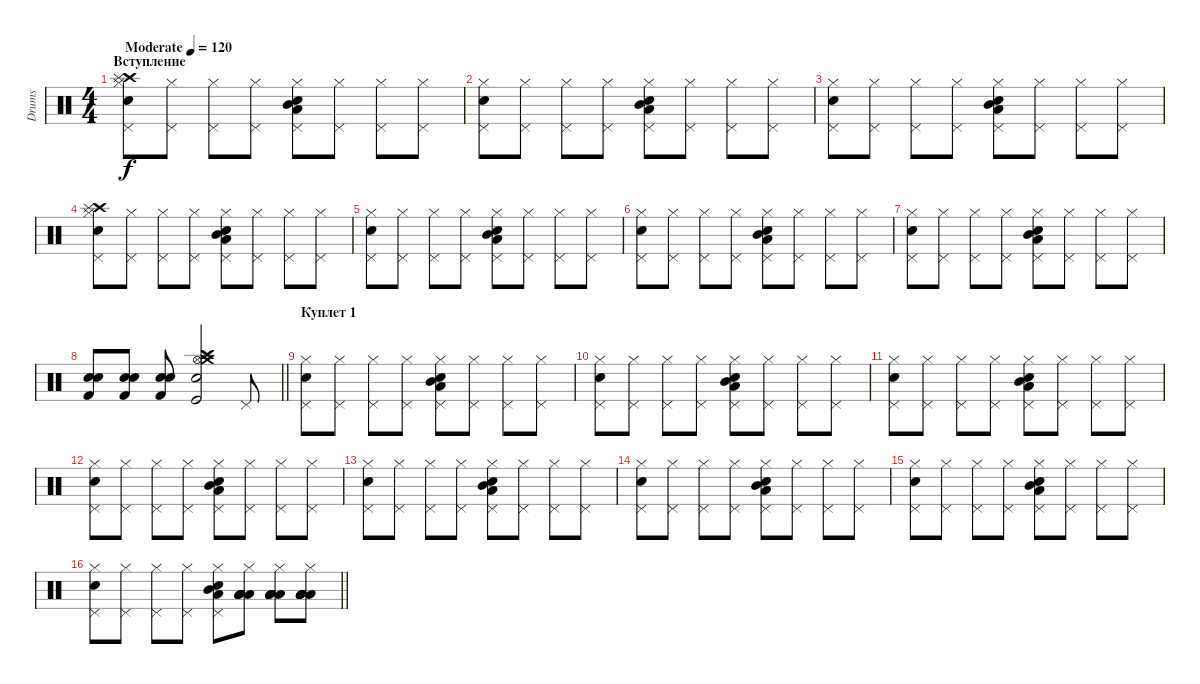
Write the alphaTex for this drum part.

\track ("Drums" "Drums") {instrument percussion}
\staff {score}
\articulation defaults
\ts (4 4)
\section ("" "Вступление")
\tempo (120 "Moderate")
\clef neutral
\ks c
("Hi-Hat (closed)" "Pedal Hi-Hat (hit)" "Snare (hit) 2" "Crash high (hit)" "Splash (hit)").8{dy f} ("Hi-Hat (closed)" "Pedal Hi-Hat (hit)").8 ("Hi-Hat (closed)" "Pedal Hi-Hat (hit)").8 ("Hi-Hat (closed)" "Pedal Hi-Hat (hit)").8 ("Hi-Hat (closed)" "Pedal Hi-Hat (hit)" "Mid Tom (hit)" "Low Floor Tom (hit)" "Electric Snare (hit)").8 ("Hi-Hat (closed)" "Pedal Hi-Hat (hit)").8 ("Hi-Hat (closed)" "Pedal Hi-Hat (hit)").8 ("Hi-Hat (closed)" "Pedal Hi-Hat (hit)").8 |
("Hi-Hat (closed)" "Pedal Hi-Hat (hit)" "Snare (hit) 2").8 ("Hi-Hat (closed)" "Pedal Hi-Hat (hit)").8 ("Hi-Hat (closed)" "Pedal Hi-Hat (hit)").8 ("Hi-Hat (closed)" "Pedal Hi-Hat (hit)").8 ("Hi-Hat (closed)" "Pedal Hi-Hat (hit)" "Mid Tom (hit)" "Low Floor Tom (hit)" "Electric Snare (hit)").8 ("Hi-Hat (closed)" "Pedal Hi-Hat (hit)").8 ("Hi-Hat (closed)" "Pedal Hi-Hat (hit)").8 ("Hi-Hat (closed)" "Pedal Hi-Hat (hit)").8 |
("Hi-Hat (closed)" "Pedal Hi-Hat (hit)" "Snare (hit) 2").8 ("Hi-Hat (closed)" "Pedal Hi-Hat (hit)").8 ("Hi-Hat (closed)" "Pedal Hi-Hat (hit)").8 ("Hi-Hat (closed)" "Pedal Hi-Hat (hit)").8 ("Hi-Hat (closed)" "Pedal Hi-Hat (hit)" "Mid Tom (hit)" "Low Floor Tom (hit)" "Electric Snare (hit)").8 ("Hi-Hat (closed)" "Pedal Hi-Hat (hit)").8 ("Hi-Hat (closed)" "Pedal Hi-Hat (hit)").8 ("Hi-Hat (closed)" "Pedal Hi-Hat (hit)").8 |
("Hi-Hat (closed)" "Pedal Hi-Hat (hit)" "Snare (hit) 2" "Crash high (hit)" "Splash (hit)").8 ("Hi-Hat (closed)" "Pedal Hi-Hat (hit)").8 ("Hi-Hat (closed)" "Pedal Hi-Hat (hit)").8 ("Hi-Hat (closed)" "Pedal Hi-Hat (hit)").8 ("Hi-Hat (closed)" "Pedal Hi-Hat (hit)" "Mid Tom (hit)" "Low Floor Tom (hit)" "Electric Snare (hit)").8 ("Hi-Hat (closed)" "Pedal Hi-Hat (hit)").8 ("Hi-Hat (closed)" "Pedal Hi-Hat (hit)").8 ("Hi-Hat (closed)" "Pedal Hi-Hat (hit)").8 |
("Hi-Hat (closed)" "Pedal Hi-Hat (hit)" "Snare (hit) 2").8 ("Hi-Hat (closed)" "Pedal Hi-Hat (hit)").8 ("Hi-Hat (closed)" "Pedal Hi-Hat (hit)").8 ("Hi-Hat (closed)" "Pedal Hi-Hat (hit)").8 ("Hi-Hat (closed)" "Pedal Hi-Hat (hit)" "Mid Tom (hit)" "Low Floor Tom (hit)" "Electric Snare (hit)").8 ("Hi-Hat (closed)" "Pedal Hi-Hat (hit)").8 ("Hi-Hat (closed)" "Pedal Hi-Hat (hit)").8 ("Hi-Hat (closed)" "Pedal Hi-Hat (hit)").8 |
("Hi-Hat (closed)" "Pedal Hi-Hat (hit)" "Snare (hit) 2").8 ("Hi-Hat (closed)" "Pedal Hi-Hat (hit)").8 ("Hi-Hat (closed)" "Pedal Hi-Hat (hit)").8 ("Hi-Hat (closed)" "Pedal Hi-Hat (hit)").8 ("Hi-Hat (closed)" "Pedal Hi-Hat (hit)" "Mid Tom (hit)" "Low Floor Tom (hit)" "Electric Snare (hit)").8 ("Hi-Hat (closed)" "Pedal Hi-Hat (hit)").8 ("Hi-Hat (closed)" "Pedal Hi-Hat (hit)").8 ("Hi-Hat (closed)" "Pedal Hi-Hat (hit)").8 |
("Hi-Hat (closed)" "Pedal Hi-Hat (hit)" "Snare (hit) 2").8 ("Hi-Hat (closed)" "Pedal Hi-Hat (hit)").8 ("Hi-Hat (closed)" "Pedal Hi-Hat (hit)").8 ("Hi-Hat (closed)" "Pedal Hi-Hat (hit)").8 ("Hi-Hat (closed)" "Pedal Hi-Hat (hit)" "Mid Tom (hit)" "Low Floor Tom (hit)" "Electric Snare (hit)").8 ("Hi-Hat (closed)" "Pedal Hi-Hat (hit)").8 ("Hi-Hat (closed)" "Pedal Hi-Hat (hit)").8 ("Hi-Hat (closed)" "Pedal Hi-Hat (hit)").8 |
\barLineRight lightlight
("Kick (hit) 2" "Snare (hit) 2" "Electric Snare (hit)").8 ("Kick (hit) 2" "Snare (hit) 2" "Electric Snare (hit)").8 ("Kick (hit) 2" "Snare (hit) 2" "Electric Snare (hit)").8 ("Crash high (hit)" "Hi-Hat (open)" "Splash (hit)" "Crash medium (hit)" "Snare (hit) 2" "Kick (hit)").2 "Pedal Hi-Hat (hit)".8 |
\section ("" "Куплет 1")
("Hi-Hat (closed)" "Pedal Hi-Hat (hit)" "Snare (hit) 2").8 ("Hi-Hat (closed)" "Pedal Hi-Hat (hit)").8 ("Hi-Hat (closed)" "Pedal Hi-Hat (hit)").8 ("Hi-Hat (closed)" "Pedal Hi-Hat (hit)").8 ("Hi-Hat (closed)" "Pedal Hi-Hat (hit)" "Mid Tom (hit)" "Low Floor Tom (hit)" "Electric Snare (hit)").8 ("Hi-Hat (closed)" "Pedal Hi-Hat (hit)").8 ("Hi-Hat (closed)" "Pedal Hi-Hat (hit)").8 ("Hi-Hat (closed)" "Pedal Hi-Hat (hit)").8 |
("Hi-Hat (closed)" "Pedal Hi-Hat (hit)" "Snare (hit) 2").8 ("Hi-Hat (closed)" "Pedal Hi-Hat (hit)").8 ("Hi-Hat (closed)" "Pedal Hi-Hat (hit)").8 ("Hi-Hat (closed)" "Pedal Hi-Hat (hit)").8 ("Hi-Hat (closed)" "Pedal Hi-Hat (hit)" "Mid Tom (hit)" "Low Floor Tom (hit)" "Electric Snare (hit)").8 ("Hi-Hat (closed)" "Pedal Hi-Hat (hit)").8 ("Hi-Hat (closed)" "Pedal Hi-Hat (hit)").8 ("Hi-Hat (closed)" "Pedal Hi-Hat (hit)").8 |
("Hi-Hat (closed)" "Pedal Hi-Hat (hit)" "Snare (hit) 2").8 ("Hi-Hat (closed)" "Pedal Hi-Hat (hit)").8 ("Hi-Hat (closed)" "Pedal Hi-Hat (hit)").8 ("Hi-Hat (closed)" "Pedal Hi-Hat (hit)").8 ("Hi-Hat (closed)" "Pedal Hi-Hat (hit)" "Mid Tom (hit)" "Low Floor Tom (hit)" "Electric Snare (hit)").8 ("Hi-Hat (closed)" "Pedal Hi-Hat (hit)").8 ("Hi-Hat (closed)" "Pedal Hi-Hat (hit)").8 ("Hi-Hat (closed)" "Pedal Hi-Hat (hit)").8 |
("Hi-Hat (closed)" "Pedal Hi-Hat (hit)" "Snare (hit) 2").8 ("Hi-Hat (closed)" "Pedal Hi-Hat (hit)").8 ("Hi-Hat (closed)" "Pedal Hi-Hat (hit)").8 ("Hi-Hat (closed)" "Pedal Hi-Hat (hit)").8 ("Hi-Hat (closed)" "Pedal Hi-Hat (hit)" "Mid Tom (hit)" "Low Floor Tom (hit)" "Electric Snare (hit)").8 ("Hi-Hat (closed)" "Pedal Hi-Hat (hit)").8 ("Hi-Hat (closed)" "Pedal Hi-Hat (hit)").8 ("Hi-Hat (closed)" "Pedal Hi-Hat (hit)").8 |
("Hi-Hat (closed)" "Pedal Hi-Hat (hit)" "Snare (hit) 2").8 ("Hi-Hat (closed)" "Pedal Hi-Hat (hit)").8 ("Hi-Hat (closed)" "Pedal Hi-Hat (hit)").8 ("Hi-Hat (closed)" "Pedal Hi-Hat (hit)").8 ("Hi-Hat (closed)" "Pedal Hi-Hat (hit)" "Mid Tom (hit)" "Low Floor Tom (hit)" "Electric Snare (hit)").8 ("Hi-Hat (closed)" "Pedal Hi-Hat (hit)").8 ("Hi-Hat (closed)" "Pedal Hi-Hat (hit)").8 ("Hi-Hat (closed)" "Pedal Hi-Hat (hit)").8 |
("Hi-Hat (closed)" "Pedal Hi-Hat (hit)" "Snare (hit) 2").8 ("Hi-Hat (closed)" "Pedal Hi-Hat (hit)").8 ("Hi-Hat (closed)" "Pedal Hi-Hat (hit)").8 ("Hi-Hat (closed)" "Pedal Hi-Hat (hit)").8 ("Hi-Hat (closed)" "Pedal Hi-Hat (hit)" "Mid Tom (hit)" "Low Floor Tom (hit)" "Electric Snare (hit)").8 ("Hi-Hat (closed)" "Pedal Hi-Hat (hit)").8 ("Hi-Hat (closed)" "Pedal Hi-Hat (hit)").8 ("Hi-Hat (closed)" "Pedal Hi-Hat (hit)").8 |
("Hi-Hat (closed)" "Pedal Hi-Hat (hit)" "Snare (hit) 2").8 ("Hi-Hat (closed)" "Pedal Hi-Hat (hit)").8 ("Hi-Hat (closed)" "Pedal Hi-Hat (hit)").8 ("Hi-Hat (closed)" "Pedal Hi-Hat (hit)").8 ("Hi-Hat (closed)" "Pedal Hi-Hat (hit)" "Mid Tom (hit)" "Low Floor Tom (hit)" "Electric Snare (hit)").8 ("Hi-Hat (closed)" "Pedal Hi-Hat (hit)").8 ("Hi-Hat (closed)" "Pedal Hi-Hat (hit)").8 ("Hi-Hat (closed)" "Pedal Hi-Hat (hit)").8 |
\barLineRight lightlight
("Hi-Hat (closed)" "Pedal Hi-Hat (hit)" "Snare (hit) 2").8 ("Hi-Hat (closed)" "Pedal Hi-Hat (hit)").8 ("Hi-Hat (closed)" "Pedal Hi-Hat (hit)").8 ("Hi-Hat (closed)" "Pedal Hi-Hat (hit)").8 ("Hi-Hat (closed)" "Pedal Hi-Hat (hit)" "Mid Tom (hit)" "Low Floor Tom (hit)" "Electric Snare (hit)").8 ("Hi-Hat (closed)" "Low Tom (hit)" "Low Tom (hit)" "Low Tom (hit)" "Low Tom (hit)" "Low Tom (hit)").8 ("Hi-Hat (closed)" "Low Tom (hit)" "Low Tom (hit)" "Low Tom (hit)" "Low Tom (hit)" "Low Tom (hit)").8 ("Hi-Hat (closed)" "Low Tom (hit)" "Low Tom (hit)" "Low Tom (hit)" "Low Tom (hit)" "Low Tom (hit)").8
